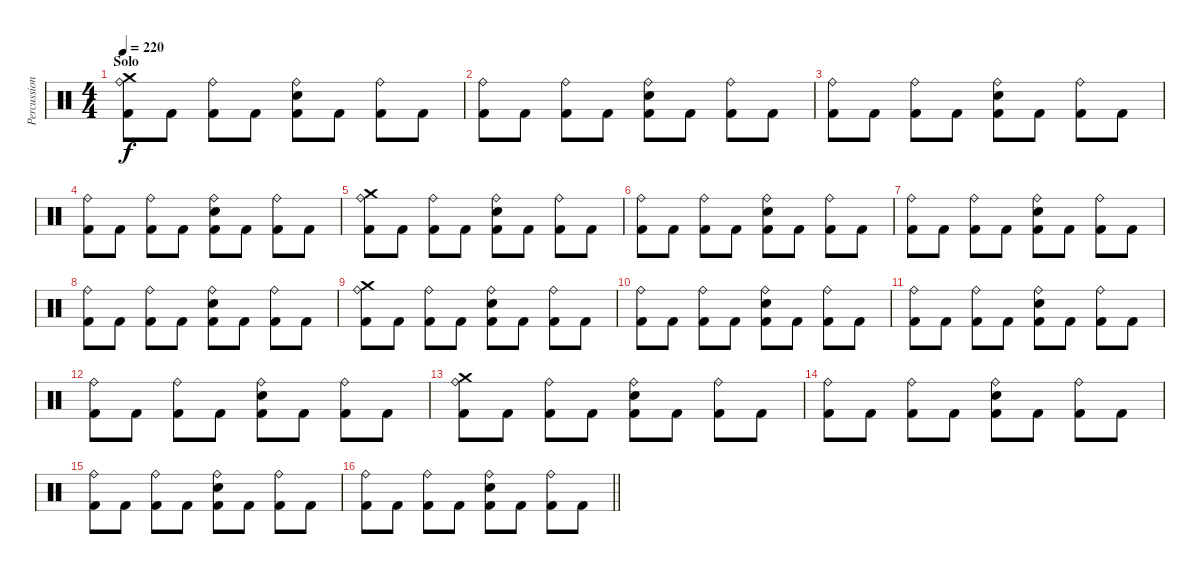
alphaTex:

\track ("Percussion" "Percussion") {instrument percussion}
\staff {score}
\articulation defaults
\ts (4 4)
\section ("" "Solo")
\tempo 220
\clef neutral
\ks c
("Crash medium (hit)" "Ride (bell)" "Kick (hit) 2").8{dy f} "Kick (hit) 2".8 ("Ride (bell)" "Kick (hit) 2").8 "Kick (hit) 2".8 ("Ride (bell)" "Electric Snare (hit)" "Kick (hit) 2").8 "Kick (hit) 2".8 ("Ride (bell)" "Kick (hit) 2").8 "Kick (hit) 2".8 |
("Ride (bell)" "Kick (hit) 2").8 "Kick (hit) 2".8 ("Ride (bell)" "Kick (hit) 2").8 "Kick (hit) 2".8 ("Ride (bell)" "Electric Snare (hit)" "Kick (hit) 2").8 "Kick (hit) 2".8 ("Ride (bell)" "Kick (hit) 2").8 "Kick (hit) 2".8 |
("Ride (bell)" "Kick (hit) 2").8 "Kick (hit) 2".8 ("Ride (bell)" "Kick (hit) 2").8 "Kick (hit) 2".8 ("Ride (bell)" "Electric Snare (hit)" "Kick (hit) 2").8 "Kick (hit) 2".8 ("Ride (bell)" "Kick (hit) 2").8 "Kick (hit) 2".8 |
("Ride (bell)" "Kick (hit) 2").8 "Kick (hit) 2".8 ("Ride (bell)" "Kick (hit) 2").8 "Kick (hit) 2".8 ("Ride (bell)" "Electric Snare (hit)" "Kick (hit) 2").8 "Kick (hit) 2".8 ("Ride (bell)" "Kick (hit) 2").8 "Kick (hit) 2".8 |
("Crash medium (hit)" "Ride (bell)" "Kick (hit) 2").8 "Kick (hit) 2".8 ("Ride (bell)" "Kick (hit) 2").8 "Kick (hit) 2".8 ("Ride (bell)" "Electric Snare (hit)" "Kick (hit) 2").8 "Kick (hit) 2".8 ("Ride (bell)" "Kick (hit) 2").8 "Kick (hit) 2".8 |
("Ride (bell)" "Kick (hit) 2").8 "Kick (hit) 2".8 ("Ride (bell)" "Kick (hit) 2").8 "Kick (hit) 2".8 ("Ride (bell)" "Electric Snare (hit)" "Kick (hit) 2").8 "Kick (hit) 2".8 ("Ride (bell)" "Kick (hit) 2").8 "Kick (hit) 2".8 |
("Ride (bell)" "Kick (hit) 2").8 "Kick (hit) 2".8 ("Ride (bell)" "Kick (hit) 2").8 "Kick (hit) 2".8 ("Ride (bell)" "Electric Snare (hit)" "Kick (hit) 2").8 "Kick (hit) 2".8 ("Ride (bell)" "Kick (hit) 2").8 "Kick (hit) 2".8 |
("Ride (bell)" "Kick (hit) 2").8 "Kick (hit) 2".8 ("Ride (bell)" "Kick (hit) 2").8 "Kick (hit) 2".8 ("Ride (bell)" "Electric Snare (hit)" "Kick (hit) 2").8 "Kick (hit) 2".8 ("Ride (bell)" "Kick (hit) 2").8 "Kick (hit) 2".8 |
("Crash medium (hit)" "Ride (bell)" "Kick (hit) 2").8 "Kick (hit) 2".8 ("Ride (bell)" "Kick (hit) 2").8 "Kick (hit) 2".8 ("Ride (bell)" "Electric Snare (hit)" "Kick (hit) 2").8 "Kick (hit) 2".8 ("Ride (bell)" "Kick (hit) 2").8 "Kick (hit) 2".8 |
("Ride (bell)" "Kick (hit) 2").8 "Kick (hit) 2".8 ("Ride (bell)" "Kick (hit) 2").8 "Kick (hit) 2".8 ("Ride (bell)" "Electric Snare (hit)" "Kick (hit) 2").8 "Kick (hit) 2".8 ("Ride (bell)" "Kick (hit) 2").8 "Kick (hit) 2".8 |
("Ride (bell)" "Kick (hit) 2").8 "Kick (hit) 2".8 ("Ride (bell)" "Kick (hit) 2").8 "Kick (hit) 2".8 ("Ride (bell)" "Electric Snare (hit)" "Kick (hit) 2").8 "Kick (hit) 2".8 ("Ride (bell)" "Kick (hit) 2").8 "Kick (hit) 2".8 |
("Ride (bell)" "Kick (hit) 2").8 "Kick (hit) 2".8 ("Ride (bell)" "Kick (hit) 2").8 "Kick (hit) 2".8 ("Ride (bell)" "Electric Snare (hit)" "Kick (hit) 2").8 "Kick (hit) 2".8 ("Ride (bell)" "Kick (hit) 2").8 "Kick (hit) 2".8 |
("Crash medium (hit)" "Ride (bell)" "Kick (hit) 2").8 "Kick (hit) 2".8 ("Ride (bell)" "Kick (hit) 2").8 "Kick (hit) 2".8 ("Ride (bell)" "Electric Snare (hit)" "Kick (hit) 2").8 "Kick (hit) 2".8 ("Ride (bell)" "Kick (hit) 2").8 "Kick (hit) 2".8 |
("Ride (bell)" "Kick (hit) 2").8 "Kick (hit) 2".8 ("Ride (bell)" "Kick (hit) 2").8 "Kick (hit) 2".8 ("Ride (bell)" "Electric Snare (hit)" "Kick (hit) 2").8 "Kick (hit) 2".8 ("Ride (bell)" "Kick (hit) 2").8 "Kick (hit) 2".8 |
("Ride (bell)" "Kick (hit) 2").8 "Kick (hit) 2".8 ("Ride (bell)" "Kick (hit) 2").8 "Kick (hit) 2".8 ("Ride (bell)" "Electric Snare (hit)" "Kick (hit) 2").8 "Kick (hit) 2".8 ("Ride (bell)" "Kick (hit) 2").8 "Kick (hit) 2".8 |
\barLineRight lightlight
("Ride (bell)" "Kick (hit) 2").8 "Kick (hit) 2".8 ("Ride (bell)" "Kick (hit) 2").8 "Kick (hit) 2".8 ("Ride (bell)" "Electric Snare (hit)" "Kick (hit) 2").8 "Kick (hit) 2".8 ("Ride (bell)" "Kick (hit) 2").8 "Kick (hit) 2".8
